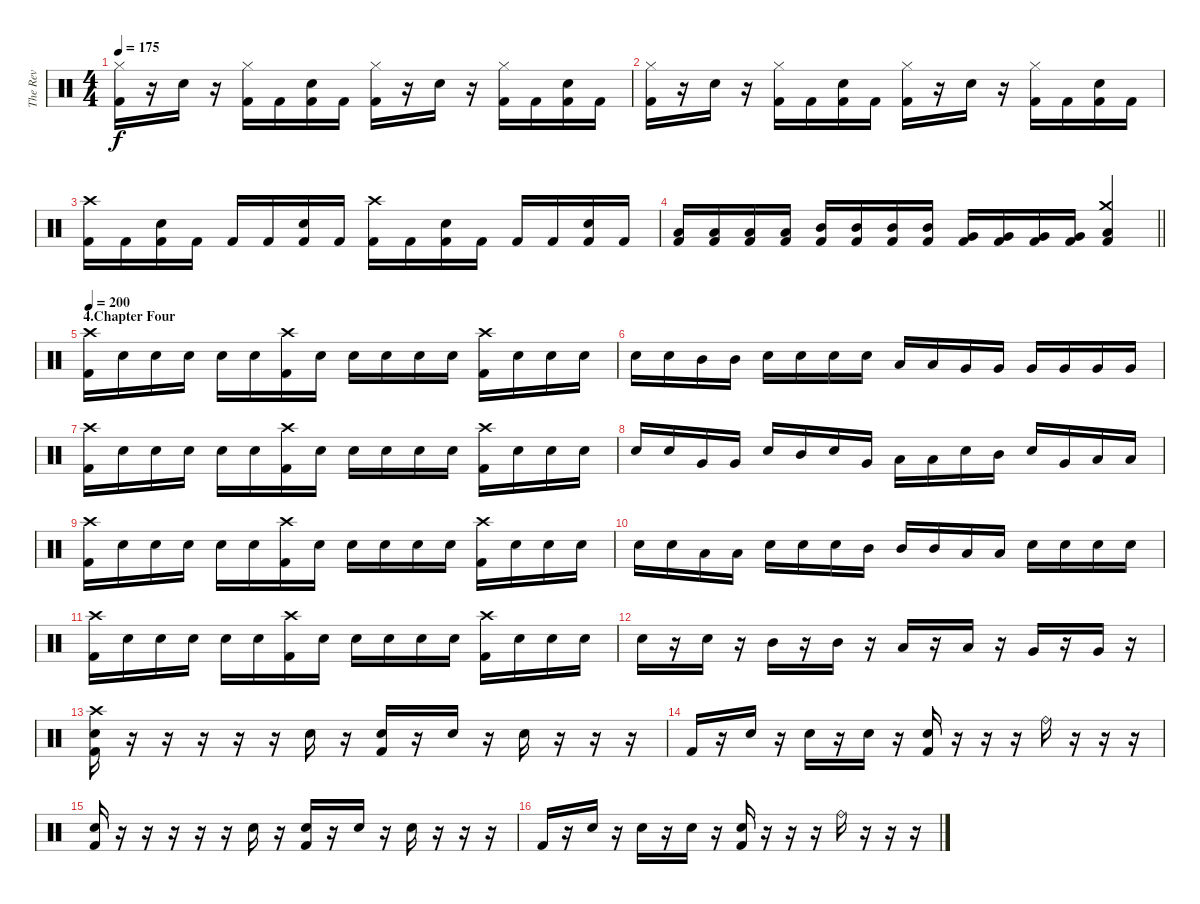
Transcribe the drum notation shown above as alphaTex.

\track ("The Rev" "The Rev") {instrument percussion}
\staff {score}
\articulation defaults
\ts (4 4)
\tempo 175
\clef neutral
\ks c
("Hi-Hat (closed)" "Kick (hit) 2").16{dy f} r.16 "Electric Snare (hit)".16 r.16 ("Hi-Hat (closed)" "Kick (hit) 2").16 "Kick (hit) 2".16 ("Electric Snare (hit)" "Kick (hit) 2").16 "Kick (hit) 2".16 ("Hi-Hat (closed)" "Kick (hit) 2").16 r.16 "Electric Snare (hit)".16 r.16 ("Hi-Hat (closed)" "Kick (hit) 2").16 "Kick (hit) 2".16 ("Electric Snare (hit)" "Kick (hit) 2").16 "Kick (hit) 2".16 |
("Hi-Hat (closed)" "Kick (hit) 2").16 r.16 "Electric Snare (hit)".16 r.16 ("Hi-Hat (closed)" "Kick (hit) 2").16 "Kick (hit) 2".16 ("Electric Snare (hit)" "Kick (hit) 2").16 "Kick (hit) 2".16 ("Hi-Hat (closed)" "Kick (hit) 2").16 r.16 "Electric Snare (hit)".16 r.16 ("Hi-Hat (closed)" "Kick (hit) 2").16 "Kick (hit) 2".16 ("Electric Snare (hit)" "Kick (hit) 2").16 "Kick (hit) 2".16 |
("Crash high (hit)" "Kick (hit) 2").16 "Kick (hit) 2".16 ("Electric Snare (hit)" "Kick (hit) 2").16 "Kick (hit) 2".16 "Kick (hit) 2".16 "Kick (hit) 2".16 ("Electric Snare (hit)" "Kick (hit) 2").16 "Kick (hit) 2".16 ("Crash high (hit)" "Kick (hit) 2").16 "Kick (hit) 2".16 ("Electric Snare (hit)" "Kick (hit) 2").16 "Kick (hit) 2".16 "Kick (hit) 2".16 "Kick (hit) 2".16 ("Electric Snare (hit)" "Kick (hit) 2").16 "Kick (hit) 2".16 |
\barLineRight lightlight
("Low Tom (hit)" "Kick (hit) 2").16 ("Low Tom (hit)" "Kick (hit) 2").16 ("Low Tom (hit)" "Kick (hit) 2").16 ("Low Tom (hit)" "Kick (hit) 2").16 ("Mid Tom (hit)" "Kick (hit) 2").16 ("Mid Tom (hit)" "Kick (hit) 2").16 ("Mid Tom (hit)" "Kick (hit) 2").16 ("Mid Tom (hit)" "Kick (hit) 2").16 ("Very Low Tom (hit)" "Kick (hit) 2").16 ("Very Low Tom (hit)" "Kick (hit) 2").16 ("Very Low Tom (hit)" "Kick (hit) 2").16 ("Very Low Tom (hit)" "Kick (hit) 2").16 ("Crash medium (hit)" "Low Floor Tom (hit)" "Kick (hit) 2").4 |
\section ("" "4.Chapter Four")
\tempo 200
("Crash high (hit)" "Kick (hit) 2").16 "Electric Snare (hit)".16 "Electric Snare (hit)".16 "Electric Snare (hit)".16 "Electric Snare (hit)".16 "Electric Snare (hit)".16 ("Crash high (hit)" "Kick (hit) 2").16 "Electric Snare (hit)".16 "Electric Snare (hit)".16 "Electric Snare (hit)".16 "Electric Snare (hit)".16 "Electric Snare (hit)".16 ("Crash high (hit)" "Kick (hit) 2").16 "Electric Snare (hit)".16 "Electric Snare (hit)".16 "Electric Snare (hit)".16 |
"Electric Snare (hit)".16 "Electric Snare (hit)".16 "Mid Tom (hit)".16 "Mid Tom (hit)".16 "Electric Snare (hit)".16 "Electric Snare (hit)".16 "Electric Snare (hit)".16 "Electric Snare (hit)".16 "Low Tom (hit)".16 "Low Tom (hit)".16 "Very Low Tom (hit)".16 "Very Low Tom (hit)".16 "Very Low Tom (hit)".16 "Very Low Tom (hit)".16 "Very Low Tom (hit)".16 "Very Low Tom (hit)".16 |
("Crash high (hit)" "Kick (hit) 2").16 "Electric Snare (hit)".16 "Electric Snare (hit)".16 "Electric Snare (hit)".16 "Electric Snare (hit)".16 "Electric Snare (hit)".16 ("Crash high (hit)" "Kick (hit) 2").16 "Electric Snare (hit)".16 "Electric Snare (hit)".16 "Electric Snare (hit)".16 "Electric Snare (hit)".16 "Electric Snare (hit)".16 ("Crash high (hit)" "Kick (hit) 2").16 "Electric Snare (hit)".16 "Electric Snare (hit)".16 "Electric Snare (hit)".16 |
"Electric Snare (hit)".16 "Electric Snare (hit)".16 "Very Low Tom (hit)".16 "Very Low Tom (hit)".16 "Electric Snare (hit)".16 "Mid Tom (hit)".16 "Electric Snare (hit)".16 "Very Low Tom (hit)".16 "Low Tom (hit)".16 "Low Tom (hit)".16 "Electric Snare (hit)".16 "Mid Tom (hit)".16 "Electric Snare (hit)".16 "Very Low Tom (hit)".16 "Low Tom (hit)".16 "Low Tom (hit)".16 |
("Crash high (hit)" "Kick (hit) 2").16 "Electric Snare (hit)".16 "Electric Snare (hit)".16 "Electric Snare (hit)".16 "Electric Snare (hit)".16 "Electric Snare (hit)".16 ("Crash high (hit)" "Kick (hit) 2").16 "Electric Snare (hit)".16 "Electric Snare (hit)".16 "Electric Snare (hit)".16 "Electric Snare (hit)".16 "Electric Snare (hit)".16 ("Crash high (hit)" "Kick (hit) 2").16 "Electric Snare (hit)".16 "Electric Snare (hit)".16 "Electric Snare (hit)".16 |
"Electric Snare (hit)".16 "Electric Snare (hit)".16 "Low Tom (hit)".16 "Low Tom (hit)".16 "Electric Snare (hit)".16 "Electric Snare (hit)".16 "Electric Snare (hit)".16 "Mid Tom (hit)".16 "Mid Tom (hit)".16 "Mid Tom (hit)".16 "Low Tom (hit)".16 "Low Tom (hit)".16 "Electric Snare (hit)".16 "Electric Snare (hit)".16 "Electric Snare (hit)".16 "Electric Snare (hit)".16 |
("Crash high (hit)" "Kick (hit) 2").16 "Electric Snare (hit)".16 "Electric Snare (hit)".16 "Electric Snare (hit)".16 "Electric Snare (hit)".16 "Electric Snare (hit)".16 ("Crash high (hit)" "Kick (hit) 2").16 "Electric Snare (hit)".16 "Electric Snare (hit)".16 "Electric Snare (hit)".16 "Electric Snare (hit)".16 "Electric Snare (hit)".16 ("Crash high (hit)" "Kick (hit) 2").16 "Electric Snare (hit)".16 "Electric Snare (hit)".16 "Electric Snare (hit)".16 |
"Electric Snare (hit)".16 r.16 "Electric Snare (hit)".16 r.16 "Mid Tom (hit)".16 r.16 "Mid Tom (hit)".16 r.16 "Low Tom (hit)".16 r.16 "Low Tom (hit)".16 r.16 "Very Low Tom (hit)".16 r.16 "Very Low Tom (hit)".16 r.16 |
("Crash high (hit)" "Electric Snare (hit)" "Kick (hit) 2").16 r.16 r.16 r.16 r.16 r.16 "Electric Snare (hit)".16 r.16 ("Electric Snare (hit)" "Kick (hit) 2").16 r.16 "Electric Snare (hit)".16 r.16 "Electric Snare (hit)".16 r.16 r.16 r.16 |
"Kick (hit) 2".16 r.16 "Electric Snare (hit)".16 r.16 "Electric Snare (hit)".16 r.16 "Electric Snare (hit)".16 r.16 ("Electric Snare (hit)" "Kick (hit) 2").16 r.16 r.16 r.16 "Ride (bell)".16 r.16 r.16 r.16 |
("Electric Snare (hit)" "Kick (hit) 2").16 r.16 r.16 r.16 r.16 r.16 "Electric Snare (hit)".16 r.16 ("Electric Snare (hit)" "Kick (hit) 2").16 r.16 "Electric Snare (hit)".16 r.16 "Electric Snare (hit)".16 r.16 r.16 r.16 |
"Kick (hit) 2".16 r.16 "Electric Snare (hit)".16 r.16 "Electric Snare (hit)".16 r.16 "Electric Snare (hit)".16 r.16 ("Electric Snare (hit)" "Kick (hit) 2").16 r.16 r.16 r.16 "Ride (bell)".16 r.16 r.16 r.16
